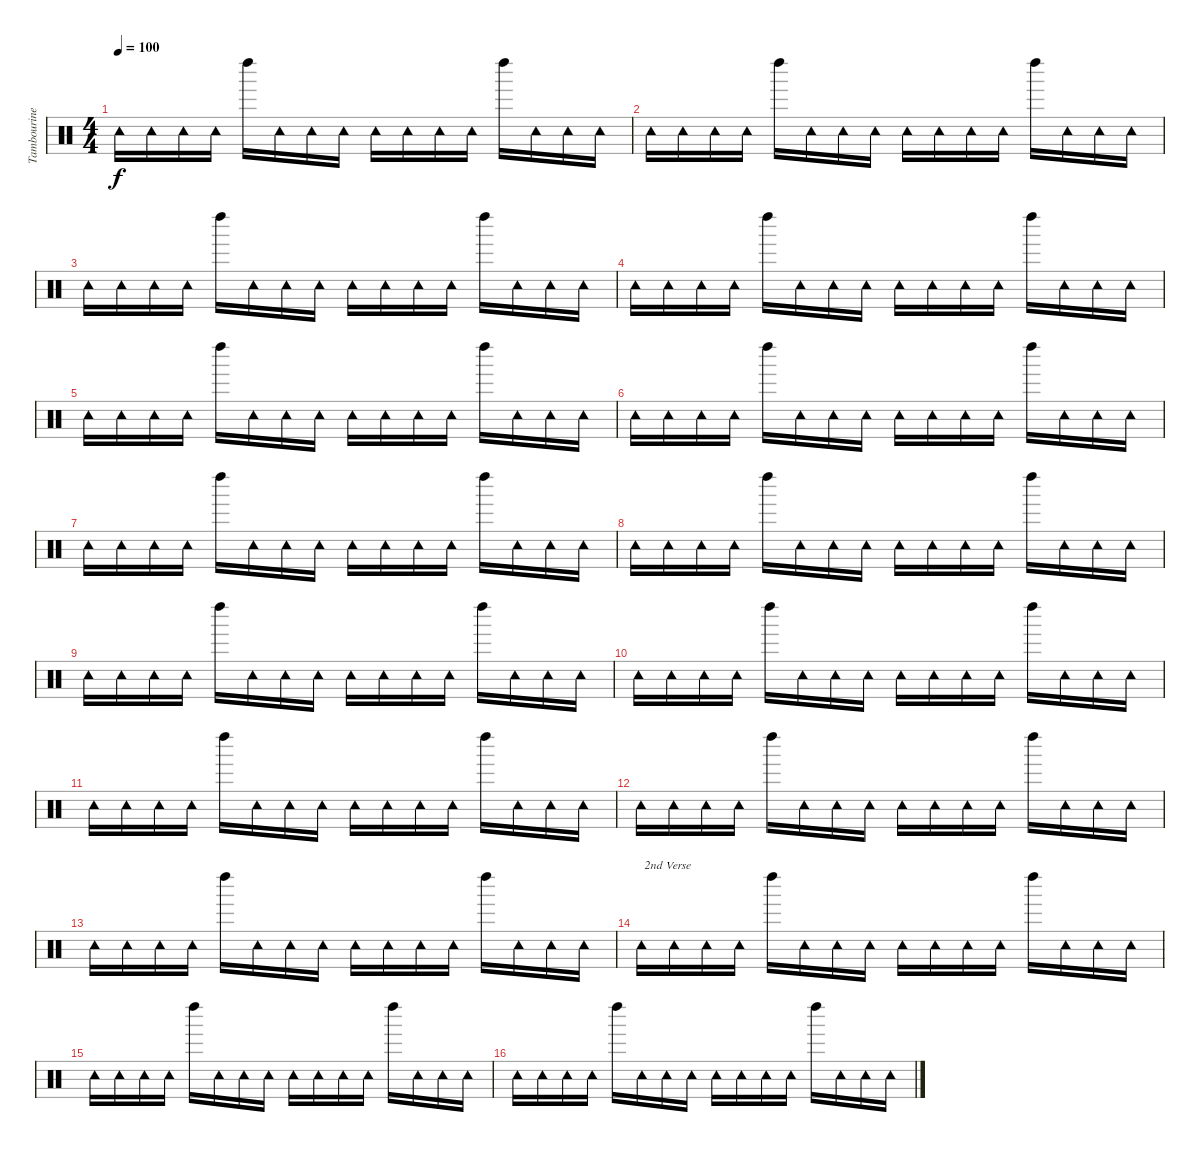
\track ("Tambourine(Alan)" "Tambourine") {instrument percussion}
\staff {score}
\articulation defaults
\ts (4 4)
\tempo 100
\clef neutral
\ks c "Tambourine (hit)".16{dy f} "Tambourine (hit)".16 "Tambourine (hit)".16 "Tambourine (hit)".16 "Left Maraca (hit)".16 "Tambourine (hit)".16 "Tambourine (hit)".16 "Tambourine (hit)".16 "Tambourine (hit)".16 "Tambourine (hit)".16 "Tambourine (hit)".16 "Tambourine (hit)".16 "Left Maraca (hit)".16 "Tambourine (hit)".16 "Tambourine (hit)".16 "Tambourine (hit)".16
|
"Tambourine (hit)".16 "Tambourine (hit)".16 "Tambourine (hit)".16 "Tambourine (hit)".16 "Left Maraca (hit)".16 "Tambourine (hit)".16 "Tambourine (hit)".16 "Tambourine (hit)".16 "Tambourine (hit)".16 "Tambourine (hit)".16 "Tambourine (hit)".16 "Tambourine (hit)".16 "Left Maraca (hit)".16 "Tambourine (hit)".16 "Tambourine (hit)".16 "Tambourine (hit)".16 |
"Tambourine (hit)".16 "Tambourine (hit)".16 "Tambourine (hit)".16 "Tambourine (hit)".16 "Left Maraca (hit)".16 "Tambourine (hit)".16 "Tambourine (hit)".16 "Tambourine (hit)".16 "Tambourine (hit)".16 "Tambourine (hit)".16 "Tambourine (hit)".16 "Tambourine (hit)".16 "Left Maraca (hit)".16 "Tambourine (hit)".16 "Tambourine (hit)".16 "Tambourine (hit)".16 |
"Tambourine (hit)".16 "Tambourine (hit)".16 "Tambourine (hit)".16 "Tambourine (hit)".16 "Left Maraca (hit)".16 "Tambourine (hit)".16 "Tambourine (hit)".16 "Tambourine (hit)".16 "Tambourine (hit)".16 "Tambourine (hit)".16 "Tambourine (hit)".16 "Tambourine (hit)".16 "Left Maraca (hit)".16 "Tambourine (hit)".16 "Tambourine (hit)".16 "Tambourine (hit)".16 |
"Tambourine (hit)".16 "Tambourine (hit)".16 "Tambourine (hit)".16 "Tambourine (hit)".16 "Left Maraca (hit)".16 "Tambourine (hit)".16 "Tambourine (hit)".16 "Tambourine (hit)".16 "Tambourine (hit)".16 "Tambourine (hit)".16 "Tambourine (hit)".16 "Tambourine (hit)".16 "Left Maraca (hit)".16 "Tambourine (hit)".16 "Tambourine (hit)".16 "Tambourine (hit)".16 |
"Tambourine (hit)".16 "Tambourine (hit)".16 "Tambourine (hit)".16 "Tambourine (hit)".16 "Left Maraca (hit)".16 "Tambourine (hit)".16 "Tambourine (hit)".16 "Tambourine (hit)".16 "Tambourine (hit)".16 "Tambourine (hit)".16 "Tambourine (hit)".16 "Tambourine (hit)".16 "Left Maraca (hit)".16 "Tambourine (hit)".16 "Tambourine (hit)".16 "Tambourine (hit)".16 |
"Tambourine (hit)".16 "Tambourine (hit)".16 "Tambourine (hit)".16 "Tambourine (hit)".16 "Left Maraca (hit)".16 "Tambourine (hit)".16 "Tambourine (hit)".16 "Tambourine (hit)".16 "Tambourine (hit)".16 "Tambourine (hit)".16 "Tambourine (hit)".16 "Tambourine (hit)".16 "Left Maraca (hit)".16 "Tambourine (hit)".16 "Tambourine (hit)".16 "Tambourine (hit)".16 |
"Tambourine (hit)".16 "Tambourine (hit)".16 "Tambourine (hit)".16 "Tambourine (hit)".16 "Left Maraca (hit)".16 "Tambourine (hit)".16 "Tambourine (hit)".16 "Tambourine (hit)".16 "Tambourine (hit)".16 "Tambourine (hit)".16 "Tambourine (hit)".16 "Tambourine (hit)".16 "Left Maraca (hit)".16 "Tambourine (hit)".16 "Tambourine (hit)".16 "Tambourine (hit)".16 |
"Tambourine (hit)".16 "Tambourine (hit)".16 "Tambourine (hit)".16 "Tambourine (hit)".16 "Left Maraca (hit)".16 "Tambourine (hit)".16 "Tambourine (hit)".16 "Tambourine (hit)".16 "Tambourine (hit)".16 "Tambourine (hit)".16 "Tambourine (hit)".16 "Tambourine (hit)".16 "Left Maraca (hit)".16 "Tambourine (hit)".16 "Tambourine (hit)".16 "Tambourine (hit)".16 |
"Tambourine (hit)".16 "Tambourine (hit)".16 "Tambourine (hit)".16 "Tambourine (hit)".16 "Left Maraca (hit)".16 "Tambourine (hit)".16 "Tambourine (hit)".16 "Tambourine (hit)".16 "Tambourine (hit)".16 "Tambourine (hit)".16 "Tambourine (hit)".16 "Tambourine (hit)".16 "Left Maraca (hit)".16 "Tambourine (hit)".16 "Tambourine (hit)".16 "Tambourine (hit)".16 |
"Tambourine (hit)".16 "Tambourine (hit)".16 "Tambourine (hit)".16 "Tambourine (hit)".16 "Left Maraca (hit)".16 "Tambourine (hit)".16 "Tambourine (hit)".16 "Tambourine (hit)".16 "Tambourine (hit)".16 "Tambourine (hit)".16 "Tambourine (hit)".16 "Tambourine (hit)".16 "Left Maraca (hit)".16 "Tambourine (hit)".16 "Tambourine (hit)".16 "Tambourine (hit)".16 |
"Tambourine (hit)".16 "Tambourine (hit)".16 "Tambourine (hit)".16 "Tambourine (hit)".16 "Left Maraca (hit)".16 "Tambourine (hit)".16 "Tambourine (hit)".16 "Tambourine (hit)".16 "Tambourine (hit)".16 "Tambourine (hit)".16 "Tambourine (hit)".16 "Tambourine (hit)".16 "Left Maraca (hit)".16 "Tambourine (hit)".16 "Tambourine (hit)".16 "Tambourine (hit)".16 |
"Tambourine (hit)".16 "Tambourine (hit)".16 "Tambourine (hit)".16 "Tambourine (hit)".16 "Left Maraca (hit)".16 "Tambourine (hit)".16 "Tambourine (hit)".16 "Tambourine (hit)".16 "Tambourine (hit)".16 "Tambourine (hit)".16 "Tambourine (hit)".16 "Tambourine (hit)".16 "Left Maraca (hit)".16 "Tambourine (hit)".16 "Tambourine (hit)".16 "Tambourine (hit)".16 |
"Tambourine (hit)".16{txt " 2nd Verse"} "Tambourine (hit)".16 "Tambourine (hit)".16 "Tambourine (hit)".16 "Left Maraca (hit)".16 "Tambourine (hit)".16 "Tambourine (hit)".16 "Tambourine (hit)".16 "Tambourine (hit)".16 "Tambourine (hit)".16 "Tambourine (hit)".16 "Tambourine (hit)".16 "Left Maraca (hit)".16 "Tambourine (hit)".16 "Tambourine (hit)".16 "Tambourine (hit)".16 |
"Tambourine (hit)".16 "Tambourine (hit)".16 "Tambourine (hit)".16 "Tambourine (hit)".16 "Left Maraca (hit)".16 "Tambourine (hit)".16 "Tambourine (hit)".16 "Tambourine (hit)".16 "Tambourine (hit)".16 "Tambourine (hit)".16 "Tambourine (hit)".16 "Tambourine (hit)".16 "Left Maraca (hit)".16 "Tambourine (hit)".16 "Tambourine (hit)".16 "Tambourine (hit)".16 |
"Tambourine (hit)".16 "Tambourine (hit)".16 "Tambourine (hit)".16 "Tambourine (hit)".16 "Left Maraca (hit)".16 "Tambourine (hit)".16 "Tambourine (hit)".16 "Tambourine (hit)".16 "Tambourine (hit)".16 "Tambourine (hit)".16 "Tambourine (hit)".16 "Tambourine (hit)".16 "Left Maraca (hit)".16 "Tambourine (hit)".16 "Tambourine (hit)".16 "Tambourine (hit)".16
